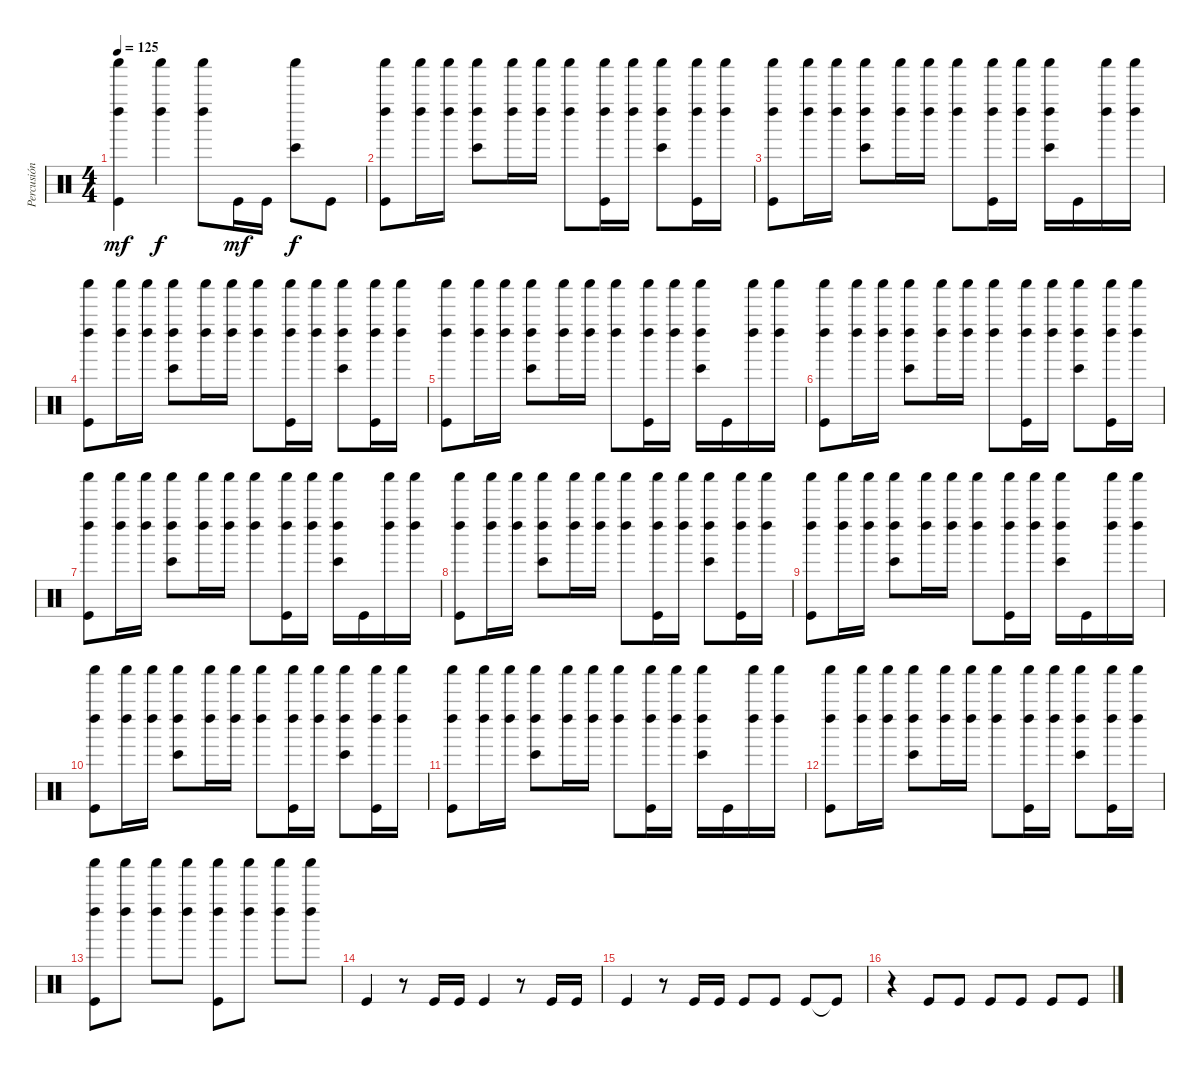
\track ("Percusión" "Percusión") {instrument percussion}
\staff {score}
\articulation defaults
\ts (4 4)
\tempo 125
\clef neutral
\ks c
("Shaker (hit)" "Left Maraca (hit)" "Kick (hit)").4{dy mf} ("Shaker (hit)" "Left Maraca (hit)").4{dy f} ("Shaker (hit)" "Left Maraca (hit)").8 "Kick (hit)".16{dy mf} "Kick (hit)".16 ("Shaker (hit)" "Bongo High (hit)").8{dy f} "Kick (hit)".8 |
("Shaker (hit)" "Left Maraca (hit)" "Kick (hit)").8 ("Shaker (hit)" "Left Maraca (hit)").16 ("Shaker (hit)" "Left Maraca (hit)").16 ("Shaker (hit)" "Left Maraca (hit)" "Bongo High (hit)").8 ("Shaker (hit)" "Left Maraca (hit)").16 ("Shaker (hit)" "Left Maraca (hit)").16 ("Shaker (hit)" "Left Maraca (hit)").8 ("Shaker (hit)" "Left Maraca (hit)" "Kick (hit)").16 ("Shaker (hit)" "Left Maraca (hit)").16 ("Shaker (hit)" "Left Maraca (hit)" "Bongo High (hit)").8 ("Shaker (hit)" "Left Maraca (hit)" "Kick (hit)").16 ("Shaker (hit)" "Left Maraca (hit)").16 |
("Shaker (hit)" "Left Maraca (hit)" "Kick (hit)").8 ("Shaker (hit)" "Left Maraca (hit)").16 ("Shaker (hit)" "Left Maraca (hit)").16 ("Shaker (hit)" "Left Maraca (hit)" "Bongo High (hit)").8 ("Shaker (hit)" "Left Maraca (hit)").16 ("Shaker (hit)" "Left Maraca (hit)").16 ("Shaker (hit)" "Left Maraca (hit)").8 ("Shaker (hit)" "Left Maraca (hit)" "Kick (hit)").16 ("Shaker (hit)" "Left Maraca (hit)").16 ("Shaker (hit)" "Left Maraca (hit)" "Bongo High (hit)").16 "Kick (hit)".16 ("Shaker (hit)" "Left Maraca (hit)").16 ("Shaker (hit)" "Left Maraca (hit)").16 |
("Shaker (hit)" "Left Maraca (hit)" "Kick (hit)").8 ("Shaker (hit)" "Left Maraca (hit)").16 ("Shaker (hit)" "Left Maraca (hit)").16 ("Shaker (hit)" "Left Maraca (hit)" "Bongo High (hit)").8 ("Shaker (hit)" "Left Maraca (hit)").16 ("Shaker (hit)" "Left Maraca (hit)").16 ("Shaker (hit)" "Left Maraca (hit)").8 ("Shaker (hit)" "Left Maraca (hit)" "Kick (hit)").16 ("Shaker (hit)" "Left Maraca (hit)").16 ("Shaker (hit)" "Left Maraca (hit)" "Bongo High (hit)").8 ("Shaker (hit)" "Left Maraca (hit)" "Kick (hit)").16 ("Shaker (hit)" "Left Maraca (hit)").16 |
("Shaker (hit)" "Left Maraca (hit)" "Kick (hit)").8 ("Shaker (hit)" "Left Maraca (hit)").16 ("Shaker (hit)" "Left Maraca (hit)").16 ("Shaker (hit)" "Left Maraca (hit)" "Bongo High (hit)").8 ("Shaker (hit)" "Left Maraca (hit)").16 ("Shaker (hit)" "Left Maraca (hit)").16 ("Shaker (hit)" "Left Maraca (hit)").8 ("Shaker (hit)" "Left Maraca (hit)" "Kick (hit)").16 ("Shaker (hit)" "Left Maraca (hit)").16 ("Shaker (hit)" "Left Maraca (hit)" "Bongo High (hit)").16 "Kick (hit)".16 ("Shaker (hit)" "Left Maraca (hit)").16 ("Shaker (hit)" "Left Maraca (hit)").16 |
("Shaker (hit)" "Left Maraca (hit)" "Kick (hit)").8 ("Shaker (hit)" "Left Maraca (hit)").16 ("Shaker (hit)" "Left Maraca (hit)").16 ("Shaker (hit)" "Left Maraca (hit)" "Bongo High (hit)").8 ("Shaker (hit)" "Left Maraca (hit)").16 ("Shaker (hit)" "Left Maraca (hit)").16 ("Shaker (hit)" "Left Maraca (hit)").8 ("Shaker (hit)" "Left Maraca (hit)" "Kick (hit)").16 ("Shaker (hit)" "Left Maraca (hit)").16 ("Shaker (hit)" "Left Maraca (hit)" "Bongo High (hit)").8 ("Shaker (hit)" "Left Maraca (hit)" "Kick (hit)").16 ("Shaker (hit)" "Left Maraca (hit)").16 |
("Shaker (hit)" "Left Maraca (hit)" "Kick (hit)").8 ("Shaker (hit)" "Left Maraca (hit)").16 ("Shaker (hit)" "Left Maraca (hit)").16 ("Shaker (hit)" "Left Maraca (hit)" "Bongo High (hit)").8 ("Shaker (hit)" "Left Maraca (hit)").16 ("Shaker (hit)" "Left Maraca (hit)").16 ("Shaker (hit)" "Left Maraca (hit)").8 ("Shaker (hit)" "Left Maraca (hit)" "Kick (hit)").16 ("Shaker (hit)" "Left Maraca (hit)").16 ("Shaker (hit)" "Left Maraca (hit)" "Bongo High (hit)").16 "Kick (hit)".16 ("Shaker (hit)" "Left Maraca (hit)").16 ("Shaker (hit)" "Left Maraca (hit)").16 |
("Shaker (hit)" "Left Maraca (hit)" "Kick (hit)").8 ("Shaker (hit)" "Left Maraca (hit)").16 ("Shaker (hit)" "Left Maraca (hit)").16 ("Shaker (hit)" "Left Maraca (hit)" "Bongo High (hit)").8 ("Shaker (hit)" "Left Maraca (hit)").16 ("Shaker (hit)" "Left Maraca (hit)").16 ("Shaker (hit)" "Left Maraca (hit)").8 ("Shaker (hit)" "Left Maraca (hit)" "Kick (hit)").16 ("Shaker (hit)" "Left Maraca (hit)").16 ("Shaker (hit)" "Left Maraca (hit)" "Bongo High (hit)").8 ("Shaker (hit)" "Left Maraca (hit)" "Kick (hit)").16 ("Shaker (hit)" "Left Maraca (hit)").16 |
("Shaker (hit)" "Left Maraca (hit)" "Kick (hit)").8 ("Shaker (hit)" "Left Maraca (hit)").16 ("Shaker (hit)" "Left Maraca (hit)").16 ("Shaker (hit)" "Left Maraca (hit)" "Bongo High (hit)").8 ("Shaker (hit)" "Left Maraca (hit)").16 ("Shaker (hit)" "Left Maraca (hit)").16 ("Shaker (hit)" "Left Maraca (hit)").8 ("Shaker (hit)" "Left Maraca (hit)" "Kick (hit)").16 ("Shaker (hit)" "Left Maraca (hit)").16 ("Shaker (hit)" "Left Maraca (hit)" "Bongo High (hit)").16 "Kick (hit)".16 ("Shaker (hit)" "Left Maraca (hit)").16 ("Shaker (hit)" "Left Maraca (hit)").16 |
("Shaker (hit)" "Left Maraca (hit)" "Kick (hit)").8 ("Shaker (hit)" "Left Maraca (hit)").16 ("Shaker (hit)" "Left Maraca (hit)").16 ("Shaker (hit)" "Left Maraca (hit)" "Bongo High (hit)").8 ("Shaker (hit)" "Left Maraca (hit)").16 ("Shaker (hit)" "Left Maraca (hit)").16 ("Shaker (hit)" "Left Maraca (hit)").8 ("Shaker (hit)" "Left Maraca (hit)" "Kick (hit)").16 ("Shaker (hit)" "Left Maraca (hit)").16 ("Shaker (hit)" "Left Maraca (hit)" "Bongo High (hit)").8 ("Shaker (hit)" "Left Maraca (hit)" "Kick (hit)").16 ("Shaker (hit)" "Left Maraca (hit)").16 |
("Shaker (hit)" "Left Maraca (hit)" "Kick (hit)").8 ("Shaker (hit)" "Left Maraca (hit)").16 ("Shaker (hit)" "Left Maraca (hit)").16 ("Shaker (hit)" "Left Maraca (hit)" "Bongo High (hit)").8 ("Shaker (hit)" "Left Maraca (hit)").16 ("Shaker (hit)" "Left Maraca (hit)").16 ("Shaker (hit)" "Left Maraca (hit)").8 ("Shaker (hit)" "Left Maraca (hit)" "Kick (hit)").16 ("Shaker (hit)" "Left Maraca (hit)").16 ("Shaker (hit)" "Left Maraca (hit)" "Bongo High (hit)").16 "Kick (hit)".16 ("Shaker (hit)" "Left Maraca (hit)").16 ("Shaker (hit)" "Left Maraca (hit)").16 |
("Shaker (hit)" "Left Maraca (hit)" "Kick (hit)").8 ("Shaker (hit)" "Left Maraca (hit)").16 ("Shaker (hit)" "Left Maraca (hit)").16 ("Shaker (hit)" "Left Maraca (hit)" "Bongo High (hit)").8 ("Shaker (hit)" "Left Maraca (hit)").16 ("Shaker (hit)" "Left Maraca (hit)").16 ("Shaker (hit)" "Left Maraca (hit)").8 ("Shaker (hit)" "Left Maraca (hit)" "Kick (hit)").16 ("Shaker (hit)" "Left Maraca (hit)").16 ("Shaker (hit)" "Left Maraca (hit)" "Bongo High (hit)").8 ("Shaker (hit)" "Left Maraca (hit)" "Kick (hit)").16 ("Shaker (hit)" "Left Maraca (hit)").16 |
("Shaker (hit)" "Left Maraca (hit)" "Kick (hit)").8 ("Shaker (hit)" "Left Maraca (hit)").8 ("Shaker (hit)" "Left Maraca (hit)").8 ("Shaker (hit)" "Left Maraca (hit)").8 ("Shaker (hit)" "Left Maraca (hit)" "Kick (hit)").8 ("Shaker (hit)" "Left Maraca (hit)").8 ("Shaker (hit)" "Left Maraca (hit)").8 ("Shaker (hit)" "Left Maraca (hit)").8 |
"Kick (hit)".4 r.8 "Kick (hit)".16 "Kick (hit)".16 "Kick (hit)".4 r.8 "Kick (hit)".16 "Kick (hit)".16 |
"Kick (hit)".4 r.8 "Kick (hit)".16 "Kick (hit)".16 "Kick (hit)".8 "Kick (hit)".8 "Kick (hit)".8 "Kick (hit)"{t}.8 |
r.4 "Kick (hit)".8 "Kick (hit)".8 "Kick (hit)".8 "Kick (hit)".8 "Kick (hit)".8 "Kick (hit)".8
